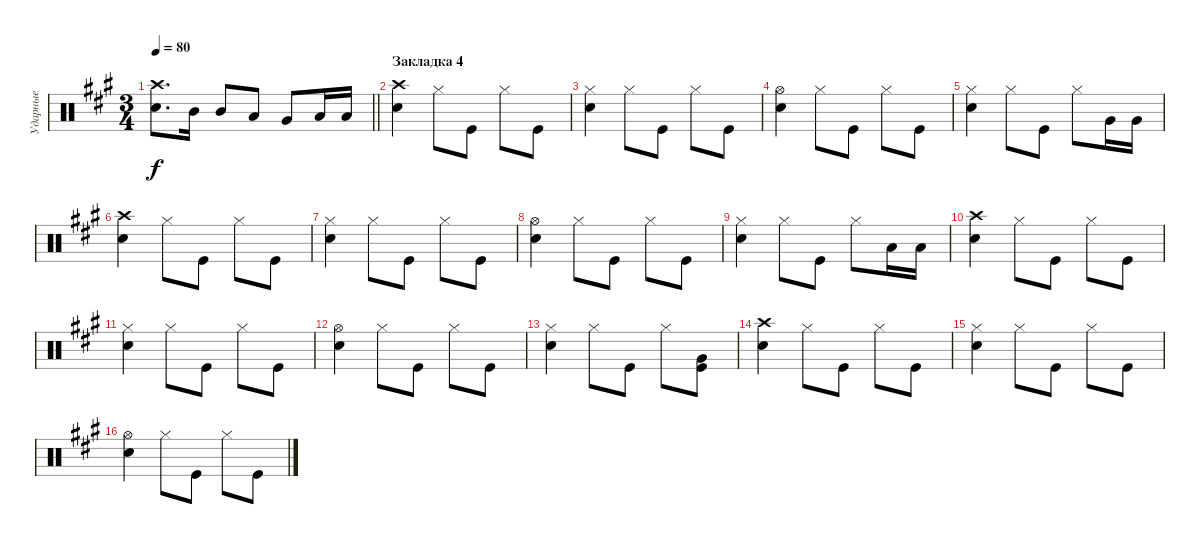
\track ("Ударные" "Ударные") {instrument percussion}
\staff {score}
\articulation defaults
\ts (3 4)
\tempo 80
\clef neutral
\barLineRight lightlight
\ks f#minor
("Snare (hit) 2" "Crash high (hit)").8{d dy f} "Mid Tom (hit)".16 "Mid Tom (hit)".8 "Low Tom (hit)".8 "Very Low Tom (hit)".8 "Low Floor Tom (hit)".16 "Low Floor Tom (hit)".16 |
\section ("" "Закладка 4")
("Snare (hit) 2" "Crash high (hit)").4 "Hi-Hat (closed)".8 "Kick (hit)".8 "Hi-Hat (closed)".8 "Kick (hit)".8 |
("Snare (hit) 2" "Hi-Hat (closed)").4 "Hi-Hat (closed)".8 "Kick (hit)".8 "Hi-Hat (closed)".8 "Kick (hit)".8 |
("Snare (hit) 2" "Hi-Hat (open)").4 "Hi-Hat (closed)".8 "Kick (hit)".8 "Hi-Hat (closed)".8 "Kick (hit)".8 |
("Snare (hit) 2" "Hi-Hat (closed)").4 "Hi-Hat (closed)".8 "Kick (hit)".8 "Hi-Hat (closed)".8 "Very Low Tom (hit)".16 "Very Low Tom (hit)".16 |
("Snare (hit) 2" "Crash high (hit)").4 "Hi-Hat (closed)".8 "Kick (hit)".8 "Hi-Hat (closed)".8 "Kick (hit)".8 |
("Snare (hit) 2" "Hi-Hat (closed)").4 "Hi-Hat (closed)".8 "Kick (hit)".8 "Hi-Hat (closed)".8 "Kick (hit)".8 |
("Snare (hit) 2" "Hi-Hat (open)").4 "Hi-Hat (closed)".8 "Kick (hit)".8 "Hi-Hat (closed)".8 "Kick (hit)".8 |
("Snare (hit) 2" "Hi-Hat (closed)").4 "Hi-Hat (closed)".8 "Kick (hit)".8 "Hi-Hat (closed)".8 "Low Tom (hit)".16 "Low Tom (hit)".16 |
("Snare (hit) 2" "Crash high (hit)").4 "Hi-Hat (closed)".8 "Kick (hit)".8 "Hi-Hat (closed)".8 "Kick (hit)".8 |
("Snare (hit) 2" "Hi-Hat (closed)").4 "Hi-Hat (closed)".8 "Kick (hit)".8 "Hi-Hat (closed)".8 "Kick (hit)".8 |
("Snare (hit) 2" "Hi-Hat (open)").4 "Hi-Hat (closed)".8 "Kick (hit)".8 "Hi-Hat (closed)".8 "Kick (hit)".8 |
("Snare (hit) 2" "Hi-Hat (closed)").4 "Hi-Hat (closed)".8 "Kick (hit)".8 "Hi-Hat (closed)".8 ("Kick (hit)" "Very Low Tom (hit)").8 |
("Snare (hit) 2" "Crash high (hit)").4 "Hi-Hat (closed)".8 "Kick (hit)".8 "Hi-Hat (closed)".8 "Kick (hit)".8 |
("Snare (hit) 2" "Hi-Hat (closed)").4 "Hi-Hat (closed)".8 "Kick (hit)".8 "Hi-Hat (closed)".8 "Kick (hit)".8 |
("Snare (hit) 2" "Hi-Hat (open)").4 "Hi-Hat (closed)".8 "Kick (hit)".8 "Hi-Hat (closed)".8 "Kick (hit)".8
